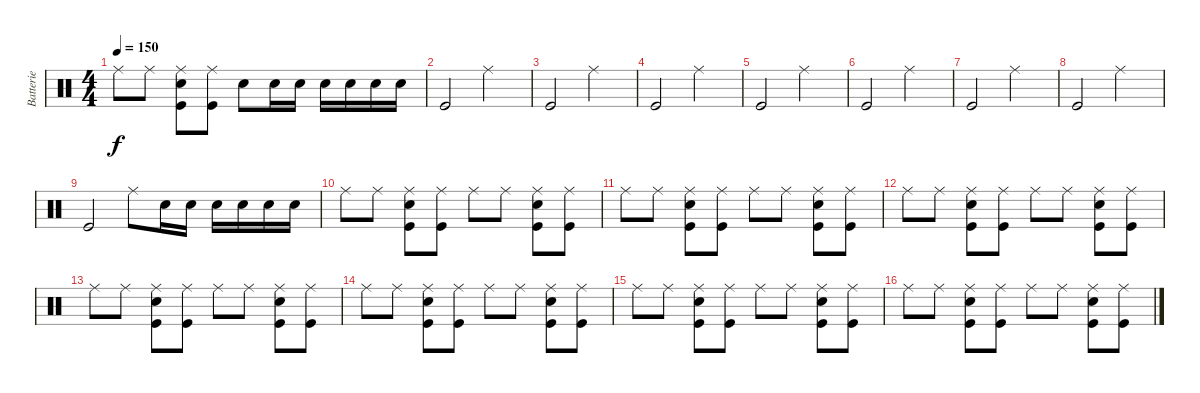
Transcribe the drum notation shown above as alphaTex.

\track ("Batterie" "Batterie") {instrument percussion}
\staff {score}
\articulation defaults
\ts (4 4)
\tempo 150
\clef neutral
\ks c "Ride (middle)".8{dy f} "Ride (middle)".8
("Ride (middle)" "Kick (hit)" "Electric Snare (hit)").8 ("Ride (middle)" "Kick (hit)").8 "Electric Snare (hit)".8 "Electric Snare (hit)".16 "Electric Snare (hit)".16 "Electric Snare (hit)".16 "Electric Snare (hit)".16 "Electric Snare (hit)".16 "Electric Snare (hit)".16 |
"Kick (hit)".2 "Ride (middle)".2 |
"Kick (hit)".2 "Ride (middle)".2 |
"Kick (hit)".2 "Ride (middle)".2 |
"Kick (hit)".2 "Ride (middle)".2 |
"Kick (hit)".2 "Ride (middle)".2 |
"Kick (hit)".2 "Ride (middle)".2 |
"Kick (hit)".2 "Ride (middle)".2 |
"Kick (hit)".2 "Ride (middle)".8 "Electric Snare (hit)".16 "Electric Snare (hit)".16 "Electric Snare (hit)".16 "Electric Snare (hit)".16 "Electric Snare (hit)".16 "Electric Snare (hit)".16 |
"Ride (middle)".8 "Ride (middle)".8 ("Ride (middle)" "Kick (hit)" "Electric Snare (hit)").8 ("Ride (middle)" "Kick (hit)").8 "Ride (middle)".8 "Ride (middle)".8 ("Ride (middle)" "Kick (hit)" "Electric Snare (hit)").8 ("Ride (middle)" "Kick (hit)").8 |
"Ride (middle)".8 "Ride (middle)".8 ("Ride (middle)" "Kick (hit)" "Electric Snare (hit)").8 ("Ride (middle)" "Kick (hit)").8 "Ride (middle)".8 "Ride (middle)".8 ("Ride (middle)" "Kick (hit)" "Electric Snare (hit)").8 ("Ride (middle)" "Kick (hit)").8 |
"Ride (middle)".8 "Ride (middle)".8 ("Ride (middle)" "Kick (hit)" "Electric Snare (hit)").8 ("Ride (middle)" "Kick (hit)").8 "Ride (middle)".8 "Ride (middle)".8 ("Ride (middle)" "Kick (hit)" "Electric Snare (hit)").8 ("Ride (middle)" "Kick (hit)").8 |
"Ride (middle)".8 "Ride (middle)".8 ("Ride (middle)" "Kick (hit)" "Electric Snare (hit)").8 ("Ride (middle)" "Kick (hit)").8 "Ride (middle)".8 "Ride (middle)".8 ("Ride (middle)" "Kick (hit)" "Electric Snare (hit)").8 ("Ride (middle)" "Kick (hit)").8 |
"Ride (middle)".8 "Ride (middle)".8 ("Ride (middle)" "Kick (hit)" "Electric Snare (hit)").8 ("Ride (middle)" "Kick (hit)").8 "Ride (middle)".8 "Ride (middle)".8 ("Ride (middle)" "Kick (hit)" "Electric Snare (hit)").8 ("Ride (middle)" "Kick (hit)").8 |
"Ride (middle)".8 "Ride (middle)".8 ("Ride (middle)" "Kick (hit)" "Electric Snare (hit)").8 ("Ride (middle)" "Kick (hit)").8 "Ride (middle)".8 "Ride (middle)".8 ("Ride (middle)" "Kick (hit)" "Electric Snare (hit)").8 ("Ride (middle)" "Kick (hit)").8 |
"Ride (middle)".8 "Ride (middle)".8 ("Ride (middle)" "Kick (hit)" "Electric Snare (hit)").8 ("Ride (middle)" "Kick (hit)").8 "Ride (middle)".8 "Ride (middle)".8 ("Ride (middle)" "Kick (hit)" "Electric Snare (hit)").8 ("Ride (middle)" "Kick (hit)").8
